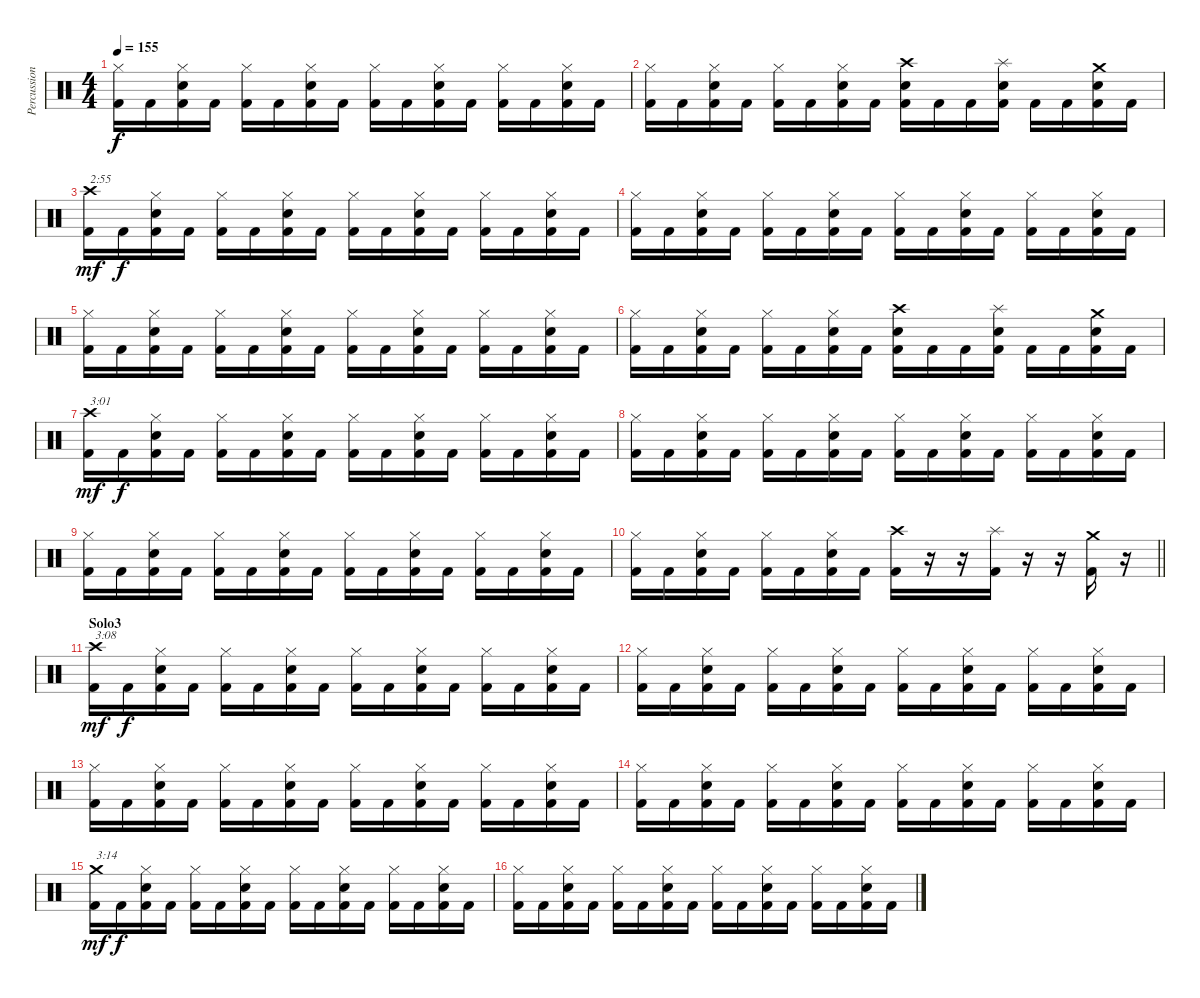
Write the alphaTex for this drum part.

\track ("Percussion" "Percussion") {instrument percussion}
\staff {score}
\articulation defaults
\ts (4 4)
\tempo 155
\clef neutral
\ks c
("Hi-Hat (closed)" "Kick (hit) 2").16{dy f} "Kick (hit) 2".16 ("Hi-Hat (closed)" "Electric Snare (hit)" "Kick (hit) 2").16 "Kick (hit) 2".16 ("Hi-Hat (closed)" "Kick (hit) 2").16 "Kick (hit) 2".16 ("Hi-Hat (closed)" "Electric Snare (hit)" "Kick (hit) 2").16 "Kick (hit) 2".16 ("Hi-Hat (closed)" "Kick (hit) 2").16 "Kick (hit) 2".16 ("Hi-Hat (closed)" "Electric Snare (hit)" "Kick (hit) 2").16 "Kick (hit) 2".16 ("Hi-Hat (closed)" "Kick (hit) 2").16 "Kick (hit) 2".16 ("Hi-Hat (closed)" "Electric Snare (hit)" "Kick (hit) 2").16 "Kick (hit) 2".16 |
("Hi-Hat (closed)" "Kick (hit) 2").16 "Kick (hit) 2".16 ("Hi-Hat (closed)" "Electric Snare (hit)" "Kick (hit) 2").16 "Kick (hit) 2".16 ("Hi-Hat (closed)" "Kick (hit) 2").16 "Kick (hit) 2".16 ("Hi-Hat (closed)" "Electric Snare (hit)" "Kick (hit) 2").16 "Kick (hit) 2".16 ("Crash high (hit)" "Electric Snare (hit)" "Kick (hit) 2").16 "Kick (hit) 2".16 "Kick (hit) 2".16 ("Splash (hit)" "Electric Snare (hit)" "Kick (hit) 2").16 "Kick (hit) 2".16 "Kick (hit) 2".16 ("Crash medium (hit)" "Electric Snare (hit)" "Kick (hit) 2").16 "Kick (hit) 2".16 |
("Crash high (hit)" "Kick (hit) 2").16{txt "2:55" dy mf} "Kick (hit) 2".16{dy f} ("Hi-Hat (closed)" "Electric Snare (hit)" "Kick (hit) 2").16 "Kick (hit) 2".16 ("Hi-Hat (closed)" "Kick (hit) 2").16 "Kick (hit) 2".16 ("Hi-Hat (closed)" "Electric Snare (hit)" "Kick (hit) 2").16 "Kick (hit) 2".16 ("Hi-Hat (closed)" "Kick (hit) 2").16 "Kick (hit) 2".16 ("Hi-Hat (closed)" "Electric Snare (hit)" "Kick (hit) 2").16 "Kick (hit) 2".16 ("Hi-Hat (closed)" "Kick (hit) 2").16 "Kick (hit) 2".16 ("Hi-Hat (closed)" "Electric Snare (hit)" "Kick (hit) 2").16 "Kick (hit) 2".16 |
("Hi-Hat (closed)" "Kick (hit) 2").16 "Kick (hit) 2".16 ("Hi-Hat (closed)" "Electric Snare (hit)" "Kick (hit) 2").16 "Kick (hit) 2".16 ("Hi-Hat (closed)" "Kick (hit) 2").16 "Kick (hit) 2".16 ("Hi-Hat (closed)" "Electric Snare (hit)" "Kick (hit) 2").16 "Kick (hit) 2".16 ("Hi-Hat (closed)" "Kick (hit) 2").16 "Kick (hit) 2".16 ("Hi-Hat (closed)" "Electric Snare (hit)" "Kick (hit) 2").16 "Kick (hit) 2".16 ("Hi-Hat (closed)" "Kick (hit) 2").16 "Kick (hit) 2".16 ("Hi-Hat (closed)" "Electric Snare (hit)" "Kick (hit) 2").16 "Kick (hit) 2".16 |
("Hi-Hat (closed)" "Kick (hit) 2").16 "Kick (hit) 2".16 ("Hi-Hat (closed)" "Electric Snare (hit)" "Kick (hit) 2").16 "Kick (hit) 2".16 ("Hi-Hat (closed)" "Kick (hit) 2").16 "Kick (hit) 2".16 ("Hi-Hat (closed)" "Electric Snare (hit)" "Kick (hit) 2").16 "Kick (hit) 2".16 ("Hi-Hat (closed)" "Kick (hit) 2").16 "Kick (hit) 2".16 ("Hi-Hat (closed)" "Electric Snare (hit)" "Kick (hit) 2").16 "Kick (hit) 2".16 ("Hi-Hat (closed)" "Kick (hit) 2").16 "Kick (hit) 2".16 ("Hi-Hat (closed)" "Electric Snare (hit)" "Kick (hit) 2").16 "Kick (hit) 2".16 |
("Hi-Hat (closed)" "Kick (hit) 2").16 "Kick (hit) 2".16 ("Hi-Hat (closed)" "Electric Snare (hit)" "Kick (hit) 2").16 "Kick (hit) 2".16 ("Hi-Hat (closed)" "Kick (hit) 2").16 "Kick (hit) 2".16 ("Hi-Hat (closed)" "Electric Snare (hit)" "Kick (hit) 2").16 "Kick (hit) 2".16 ("Crash high (hit)" "Electric Snare (hit)" "Kick (hit) 2").16 "Kick (hit) 2".16 "Kick (hit) 2".16 ("Splash (hit)" "Electric Snare (hit)" "Kick (hit) 2").16 "Kick (hit) 2".16 "Kick (hit) 2".16 ("Crash medium (hit)" "Electric Snare (hit)" "Kick (hit) 2").16 "Kick (hit) 2".16 |
("Crash high (hit)" "Kick (hit) 2").16{txt "3:01" dy mf} "Kick (hit) 2".16{dy f} ("Hi-Hat (closed)" "Electric Snare (hit)" "Kick (hit) 2").16 "Kick (hit) 2".16 ("Hi-Hat (closed)" "Kick (hit) 2").16 "Kick (hit) 2".16 ("Hi-Hat (closed)" "Electric Snare (hit)" "Kick (hit) 2").16 "Kick (hit) 2".16 ("Hi-Hat (closed)" "Kick (hit) 2").16 "Kick (hit) 2".16 ("Hi-Hat (closed)" "Electric Snare (hit)" "Kick (hit) 2").16 "Kick (hit) 2".16 ("Hi-Hat (closed)" "Kick (hit) 2").16 "Kick (hit) 2".16 ("Hi-Hat (closed)" "Electric Snare (hit)" "Kick (hit) 2").16 "Kick (hit) 2".16 |
("Hi-Hat (closed)" "Kick (hit) 2").16 "Kick (hit) 2".16 ("Hi-Hat (closed)" "Electric Snare (hit)" "Kick (hit) 2").16 "Kick (hit) 2".16 ("Hi-Hat (closed)" "Kick (hit) 2").16 "Kick (hit) 2".16 ("Hi-Hat (closed)" "Electric Snare (hit)" "Kick (hit) 2").16 "Kick (hit) 2".16 ("Hi-Hat (closed)" "Kick (hit) 2").16 "Kick (hit) 2".16 ("Hi-Hat (closed)" "Electric Snare (hit)" "Kick (hit) 2").16 "Kick (hit) 2".16 ("Hi-Hat (closed)" "Kick (hit) 2").16 "Kick (hit) 2".16 ("Hi-Hat (closed)" "Electric Snare (hit)" "Kick (hit) 2").16 "Kick (hit) 2".16 |
("Hi-Hat (closed)" "Kick (hit) 2").16 "Kick (hit) 2".16 ("Hi-Hat (closed)" "Electric Snare (hit)" "Kick (hit) 2").16 "Kick (hit) 2".16 ("Hi-Hat (closed)" "Kick (hit) 2").16 "Kick (hit) 2".16 ("Hi-Hat (closed)" "Electric Snare (hit)" "Kick (hit) 2").16 "Kick (hit) 2".16 ("Hi-Hat (closed)" "Kick (hit) 2").16 "Kick (hit) 2".16 ("Hi-Hat (closed)" "Electric Snare (hit)" "Kick (hit) 2").16 "Kick (hit) 2".16 ("Hi-Hat (closed)" "Kick (hit) 2").16 "Kick (hit) 2".16 ("Hi-Hat (closed)" "Electric Snare (hit)" "Kick (hit) 2").16 "Kick (hit) 2".16 |
\barLineRight lightlight
("Hi-Hat (closed)" "Kick (hit) 2").16 "Kick (hit) 2".16 ("Hi-Hat (closed)" "Electric Snare (hit)" "Kick (hit) 2").16 "Kick (hit) 2".16 ("Hi-Hat (closed)" "Kick (hit) 2").16 "Kick (hit) 2".16 ("Hi-Hat (closed)" "Electric Snare (hit)" "Kick (hit) 2").16 "Kick (hit) 2".16 ("Crash high (hit)" "Kick (hit) 2").16 r.16 r.16 ("Splash (hit)" "Kick (hit) 2").16 r.16 r.16 ("Crash medium (hit)" "Kick (hit) 2").16 r.16 |
\section ("" "Solo3")
("Crash high (hit)" "Kick (hit) 2").16{txt "3:08" dy mf} "Kick (hit) 2".16{dy f} ("Hi-Hat (closed)" "Electric Snare (hit)" "Kick (hit) 2").16 "Kick (hit) 2".16 ("Hi-Hat (closed)" "Kick (hit) 2").16 "Kick (hit) 2".16 ("Hi-Hat (closed)" "Electric Snare (hit)" "Kick (hit) 2").16 "Kick (hit) 2".16 ("Hi-Hat (closed)" "Kick (hit) 2").16 "Kick (hit) 2".16 ("Hi-Hat (closed)" "Electric Snare (hit)" "Kick (hit) 2").16 "Kick (hit) 2".16 ("Hi-Hat (closed)" "Kick (hit) 2").16 "Kick (hit) 2".16 ("Hi-Hat (closed)" "Electric Snare (hit)" "Kick (hit) 2").16 "Kick (hit) 2".16 |
("Hi-Hat (closed)" "Kick (hit) 2").16 "Kick (hit) 2".16 ("Hi-Hat (closed)" "Electric Snare (hit)" "Kick (hit) 2").16 "Kick (hit) 2".16 ("Hi-Hat (closed)" "Kick (hit) 2").16 "Kick (hit) 2".16 ("Hi-Hat (closed)" "Electric Snare (hit)" "Kick (hit) 2").16 "Kick (hit) 2".16 ("Hi-Hat (closed)" "Kick (hit) 2").16 "Kick (hit) 2".16 ("Hi-Hat (closed)" "Electric Snare (hit)" "Kick (hit) 2").16 "Kick (hit) 2".16 ("Hi-Hat (closed)" "Kick (hit) 2").16 "Kick (hit) 2".16 ("Hi-Hat (closed)" "Electric Snare (hit)" "Kick (hit) 2").16 "Kick (hit) 2".16 |
("Hi-Hat (closed)" "Kick (hit) 2").16 "Kick (hit) 2".16 ("Hi-Hat (closed)" "Electric Snare (hit)" "Kick (hit) 2").16 "Kick (hit) 2".16 ("Hi-Hat (closed)" "Kick (hit) 2").16 "Kick (hit) 2".16 ("Hi-Hat (closed)" "Electric Snare (hit)" "Kick (hit) 2").16 "Kick (hit) 2".16 ("Hi-Hat (closed)" "Kick (hit) 2").16 "Kick (hit) 2".16 ("Hi-Hat (closed)" "Electric Snare (hit)" "Kick (hit) 2").16 "Kick (hit) 2".16 ("Hi-Hat (closed)" "Kick (hit) 2").16 "Kick (hit) 2".16 ("Hi-Hat (closed)" "Electric Snare (hit)" "Kick (hit) 2").16 "Kick (hit) 2".16 |
("Hi-Hat (closed)" "Kick (hit) 2").16 "Kick (hit) 2".16 ("Hi-Hat (closed)" "Electric Snare (hit)" "Kick (hit) 2").16 "Kick (hit) 2".16 ("Hi-Hat (closed)" "Kick (hit) 2").16 "Kick (hit) 2".16 ("Hi-Hat (closed)" "Electric Snare (hit)" "Kick (hit) 2").16 "Kick (hit) 2".16 ("Hi-Hat (closed)" "Kick (hit) 2").16 "Kick (hit) 2".16 ("Hi-Hat (closed)" "Electric Snare (hit)" "Kick (hit) 2").16 "Kick (hit) 2".16 ("Hi-Hat (closed)" "Kick (hit) 2").16 "Kick (hit) 2".16 ("Hi-Hat (closed)" "Electric Snare (hit)" "Kick (hit) 2").16 "Kick (hit) 2".16 |
("Crash medium (hit)" "Kick (hit) 2").16{txt "3:14" dy mf} "Kick (hit) 2".16{dy f} ("Hi-Hat (closed)" "Electric Snare (hit)" "Kick (hit) 2").16 "Kick (hit) 2".16 ("Hi-Hat (closed)" "Kick (hit) 2").16 "Kick (hit) 2".16 ("Hi-Hat (closed)" "Electric Snare (hit)" "Kick (hit) 2").16 "Kick (hit) 2".16 ("Hi-Hat (closed)" "Kick (hit) 2").16 "Kick (hit) 2".16 ("Hi-Hat (closed)" "Electric Snare (hit)" "Kick (hit) 2").16 "Kick (hit) 2".16 ("Hi-Hat (closed)" "Kick (hit) 2").16 "Kick (hit) 2".16 ("Hi-Hat (closed)" "Electric Snare (hit)" "Kick (hit) 2").16 "Kick (hit) 2".16 |
("Hi-Hat (closed)" "Kick (hit) 2").16 "Kick (hit) 2".16 ("Hi-Hat (closed)" "Electric Snare (hit)" "Kick (hit) 2").16 "Kick (hit) 2".16 ("Hi-Hat (closed)" "Kick (hit) 2").16 "Kick (hit) 2".16 ("Hi-Hat (closed)" "Electric Snare (hit)" "Kick (hit) 2").16 "Kick (hit) 2".16 ("Hi-Hat (closed)" "Kick (hit) 2").16 "Kick (hit) 2".16 ("Hi-Hat (closed)" "Electric Snare (hit)" "Kick (hit) 2").16 "Kick (hit) 2".16 ("Hi-Hat (closed)" "Kick (hit) 2").16 "Kick (hit) 2".16 ("Hi-Hat (closed)" "Electric Snare (hit)" "Kick (hit) 2").16 "Kick (hit) 2".16
